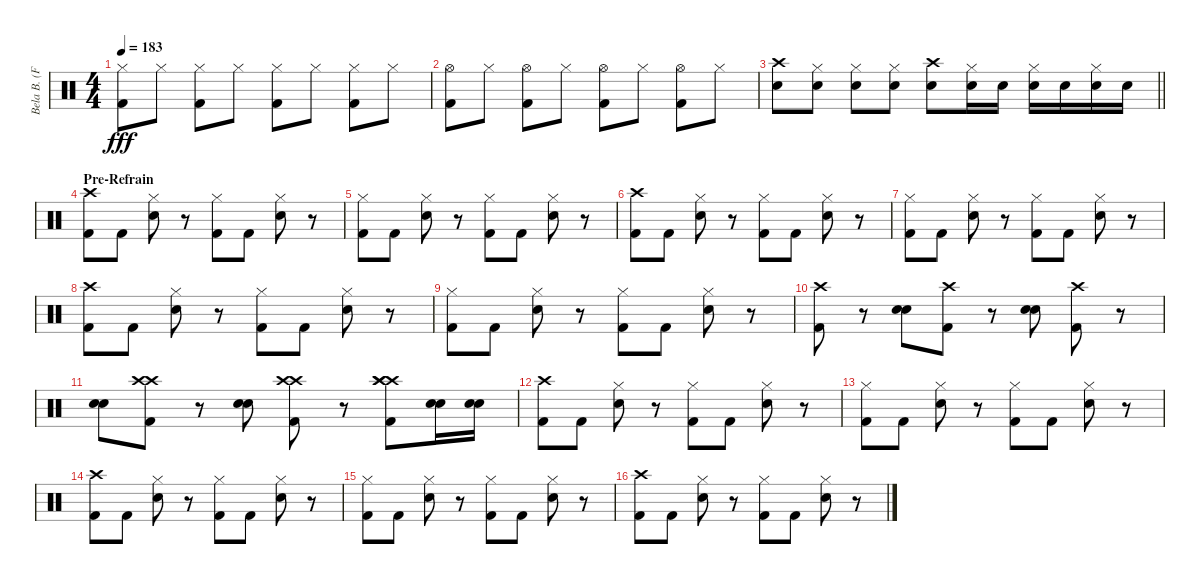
\track ("Bela B. (Felsenheimer)" "Bela B. (F") {instrument percussion}
\staff {score}
\articulation defaults
\ts (4 4)
\tempo 183
\clef neutral
\ks c
("Kick (hit) 2" "Hi-Hat (closed)").8{dy fff} "Hi-Hat (closed)".8 ("Kick (hit) 2" "Hi-Hat (closed)").8 "Hi-Hat (closed)".8 ("Kick (hit) 2" "Hi-Hat (closed)").8 "Hi-Hat (closed)".8 ("Kick (hit) 2" "Hi-Hat (closed)").8 "Hi-Hat (closed)".8 |
("Kick (hit) 2" "Hi-Hat (open)").8 "Hi-Hat (closed)".8 ("Kick (hit) 2" "Hi-Hat (open)").8 "Hi-Hat (closed)".8 ("Kick (hit) 2" "Hi-Hat (open)").8 "Hi-Hat (closed)".8 ("Kick (hit) 2" "Hi-Hat (open)").8 "Hi-Hat (closed)".8 |
\barLineRight lightlight
("Crash high (hit)" "Snare (hit) 2").8 ("Hi-Hat (closed)" "Snare (hit) 2").8 ("Hi-Hat (closed)" "Snare (hit) 2").8 ("Hi-Hat (closed)" "Snare (hit) 2").8 ("Crash high (hit)" "Snare (hit) 2").8 ("Hi-Hat (closed)" "Snare (hit) 2").16 "Snare (hit) 2".16 ("Hi-Hat (closed)" "Snare (hit) 2").16 "Snare (hit) 2".16 ("Hi-Hat (closed)" "Snare (hit) 2").16 "Snare (hit) 2".16 |
\section ("" "Pre-Refrain")
("Crash high (hit)" "Kick (hit) 2").8 "Kick (hit) 2".8 ("Hi-Hat (closed)" "Snare (hit) 2").8 r.8 ("Hi-Hat (closed)" "Kick (hit) 2").8 "Kick (hit) 2".8 ("Hi-Hat (closed)" "Snare (hit) 2").8 r.8 |
("Hi-Hat (closed)" "Kick (hit) 2").8 "Kick (hit) 2".8 ("Hi-Hat (closed)" "Snare (hit) 2").8 r.8 ("Hi-Hat (closed)" "Kick (hit) 2").8 "Kick (hit) 2".8 ("Hi-Hat (closed)" "Snare (hit) 2").8 r.8 |
("Crash high (hit)" "Kick (hit) 2").8 "Kick (hit) 2".8 ("Hi-Hat (closed)" "Snare (hit) 2").8 r.8 ("Hi-Hat (closed)" "Kick (hit) 2").8 "Kick (hit) 2".8 ("Hi-Hat (closed)" "Snare (hit) 2").8 r.8 |
("Hi-Hat (closed)" "Kick (hit) 2").8 "Kick (hit) 2".8 ("Hi-Hat (closed)" "Snare (hit) 2").8 r.8 ("Hi-Hat (closed)" "Kick (hit) 2").8 "Kick (hit) 2".8 ("Hi-Hat (closed)" "Snare (hit) 2").8 r.8 |
("Crash high (hit)" "Kick (hit) 2").8 "Kick (hit) 2".8 ("Hi-Hat (closed)" "Snare (hit) 2").8 r.8 ("Hi-Hat (closed)" "Kick (hit) 2").8 "Kick (hit) 2".8 ("Hi-Hat (closed)" "Snare (hit) 2").8 r.8 |
("Hi-Hat (closed)" "Kick (hit) 2").8 "Kick (hit) 2".8 ("Hi-Hat (closed)" "Snare (hit) 2").8 r.8 ("Hi-Hat (closed)" "Kick (hit) 2").8 "Kick (hit) 2".8 ("Hi-Hat (closed)" "Snare (hit) 2").8 r.8 |
("Crash high (hit)" "Kick (hit) 2").8 r.8 ("Electric Snare (hit)" "Snare (hit) 2").8 ("Crash high (hit)" "Kick (hit) 2").8 r.8 ("Electric Snare (hit)" "Snare (hit) 2").8 ("Crash high (hit)" "Kick (hit) 2").8 r.8 |
("Electric Snare (hit)" "Snare (hit) 2").8 ("Crash high (hit)" "Kick (hit) 2" "Crash high (hit)").8 r.8 ("Electric Snare (hit)" "Snare (hit) 2").8 ("Crash high (hit)" "Kick (hit) 2" "Crash high (hit)").8 r.8 ("Crash high (hit)" "Crash high (hit)" "Kick (hit) 2" "Crash high (hit)").8 ("Snare (hit) 2" "Electric Snare (hit)").16 ("Snare (hit) 2" "Electric Snare (hit)").16 |
("Crash high (hit)" "Kick (hit) 2").8 "Kick (hit) 2".8 ("Hi-Hat (closed)" "Snare (hit) 2").8 r.8 ("Hi-Hat (closed)" "Kick (hit) 2").8 "Kick (hit) 2".8 ("Hi-Hat (closed)" "Snare (hit) 2").8 r.8 |
("Hi-Hat (closed)" "Kick (hit) 2").8 "Kick (hit) 2".8 ("Hi-Hat (closed)" "Snare (hit) 2").8 r.8 ("Hi-Hat (closed)" "Kick (hit) 2").8 "Kick (hit) 2".8 ("Hi-Hat (closed)" "Snare (hit) 2").8 r.8 |
("Crash high (hit)" "Kick (hit) 2").8 "Kick (hit) 2".8 ("Hi-Hat (closed)" "Snare (hit) 2").8 r.8 ("Hi-Hat (closed)" "Kick (hit) 2").8 "Kick (hit) 2".8 ("Hi-Hat (closed)" "Snare (hit) 2").8 r.8 |
("Hi-Hat (closed)" "Kick (hit) 2").8 "Kick (hit) 2".8 ("Hi-Hat (closed)" "Snare (hit) 2").8 r.8 ("Hi-Hat (closed)" "Kick (hit) 2").8 "Kick (hit) 2".8 ("Hi-Hat (closed)" "Snare (hit) 2").8 r.8 |
("Crash high (hit)" "Kick (hit) 2").8 "Kick (hit) 2".8 ("Hi-Hat (closed)" "Snare (hit) 2").8 r.8 ("Hi-Hat (closed)" "Kick (hit) 2").8 "Kick (hit) 2".8 ("Hi-Hat (closed)" "Snare (hit) 2").8 r.8
